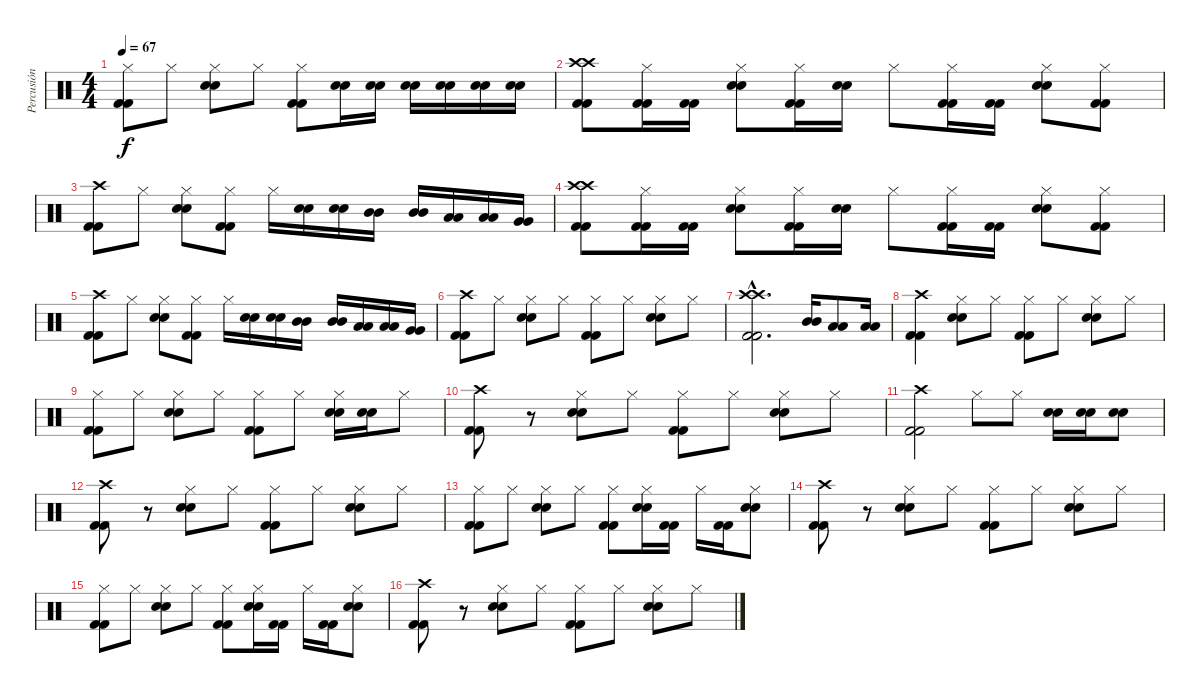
\track ("Percusión" "Percusión") {instrument percussion}
\staff {score}
\articulation defaults
\ts (4 4)
\tempo 67
\clef neutral
\ks c
("Hi-Hat (closed)" "Kick (hit) 2" "Kick (hit) 2").8{dy f} "Hi-Hat (closed)".8 ("Hi-Hat (closed)" "Electric Snare (hit)" "Electric Snare (hit)").8 "Hi-Hat (closed)".8 ("Hi-Hat (closed)" "Kick (hit) 2" "Kick (hit) 2").8 ("Electric Snare (hit)" "Electric Snare (hit)").16 ("Electric Snare (hit)" "Electric Snare (hit)").16 ("Electric Snare (hit)" "Electric Snare (hit)").16 ("Electric Snare (hit)" "Electric Snare (hit)").16 ("Electric Snare (hit)" "Electric Snare (hit)").16 ("Electric Snare (hit)" "Electric Snare (hit)").16 |
("Crash high (hit)" "Crash high (hit)" "Kick (hit) 2" "Kick (hit) 2").8 ("Hi-Hat (closed)" "Kick (hit) 2" "Kick (hit) 2").16 ("Kick (hit) 2" "Kick (hit) 2").16 ("Hi-Hat (closed)" "Electric Snare (hit)" "Electric Snare (hit)").8 ("Hi-Hat (closed)" "Kick (hit) 2" "Kick (hit) 2").16 ("Electric Snare (hit)" "Electric Snare (hit)").16 "Hi-Hat (closed)".8 ("Hi-Hat (closed)" "Kick (hit) 2" "Kick (hit) 2").16 ("Kick (hit) 2" "Kick (hit) 2").16 ("Hi-Hat (closed)" "Electric Snare (hit)" "Electric Snare (hit)").8 ("Hi-Hat (closed)" "Kick (hit) 2" "Kick (hit) 2").8 |
("Crash high (hit)" "Kick (hit) 2" "Kick (hit) 2").8 "Hi-Hat (closed)".8 ("Hi-Hat (closed)" "Electric Snare (hit)" "Electric Snare (hit)").8 ("Hi-Hat (closed)" "Kick (hit) 2" "Kick (hit) 2").8 "Hi-Hat (closed)".16 ("Electric Snare (hit)" "Electric Snare (hit)").16 ("Electric Snare (hit)" "Electric Snare (hit)").16 ("Mid Tom (hit)" "Mid Tom (hit)").16 ("Mid Tom (hit)" "Mid Tom (hit)").16 ("Low Tom (hit)" "Low Tom (hit)").16 ("Low Tom (hit)" "Low Tom (hit)").16 ("Very Low Tom (hit)" "Very Low Tom (hit)").16 |
("Crash high (hit)" "Crash high (hit)" "Kick (hit) 2" "Kick (hit) 2").8 ("Hi-Hat (closed)" "Kick (hit) 2" "Kick (hit) 2").16 ("Kick (hit) 2" "Kick (hit) 2").16 ("Hi-Hat (closed)" "Electric Snare (hit)" "Electric Snare (hit)").8 ("Hi-Hat (closed)" "Kick (hit) 2" "Kick (hit) 2").16 ("Electric Snare (hit)" "Electric Snare (hit)").16 "Hi-Hat (closed)".8 ("Hi-Hat (closed)" "Kick (hit) 2" "Kick (hit) 2").16 ("Kick (hit) 2" "Kick (hit) 2").16 ("Hi-Hat (closed)" "Electric Snare (hit)" "Electric Snare (hit)").8 ("Hi-Hat (closed)" "Kick (hit) 2" "Kick (hit) 2").8 |
("Crash high (hit)" "Kick (hit) 2" "Kick (hit) 2").8 "Hi-Hat (closed)".8 ("Hi-Hat (closed)" "Electric Snare (hit)" "Electric Snare (hit)").8 ("Hi-Hat (closed)" "Kick (hit) 2" "Kick (hit) 2").8 "Hi-Hat (closed)".16 ("Electric Snare (hit)" "Electric Snare (hit)").16 ("Electric Snare (hit)" "Electric Snare (hit)").16 ("Mid Tom (hit)" "Mid Tom (hit)").16 ("Mid Tom (hit)" "Mid Tom (hit)").16 ("Low Tom (hit)" "Low Tom (hit)").16 ("Low Tom (hit)" "Low Tom (hit)").16 ("Very Low Tom (hit)" "Very Low Tom (hit)").16 |
("Crash high (hit)" "Kick (hit) 2" "Kick (hit) 2").8 "Hi-Hat (closed)".8 ("Hi-Hat (closed)" "Electric Snare (hit)" "Electric Snare (hit)").8 "Hi-Hat (closed)".8 ("Hi-Hat (closed)" "Kick (hit) 2" "Kick (hit) 2").8 "Hi-Hat (closed)".8 ("Hi-Hat (closed)" "Electric Snare (hit)" "Electric Snare (hit)").8 "Hi-Hat (closed)".8 |
("Crash high (hit)"{hac} "Crash high (hit)"{hac} "Kick (hit) 2"{hac} "Kick (hit) 2"{hac}).2{d} ("Mid Tom (hit)" "Mid Tom (hit)").16 ("Low Tom (hit)" "Low Tom (hit)").8 ("Low Tom (hit)" "Low Tom (hit)").16 |
("Crash high (hit)" "Kick (hit) 2" "Kick (hit) 2").4 ("Hi-Hat (closed)" "Electric Snare (hit)" "Electric Snare (hit)").8 "Hi-Hat (closed)".8 ("Hi-Hat (closed)" "Kick (hit) 2" "Kick (hit) 2").8 "Hi-Hat (closed)".8 ("Hi-Hat (closed)" "Electric Snare (hit)" "Electric Snare (hit)").8 "Hi-Hat (closed)".8 |
("Hi-Hat (closed)" "Kick (hit) 2" "Kick (hit) 2").8 "Hi-Hat (closed)".8 ("Hi-Hat (closed)" "Electric Snare (hit)" "Electric Snare (hit)").8 "Hi-Hat (closed)".8 ("Hi-Hat (closed)" "Kick (hit) 2" "Kick (hit) 2").8 "Hi-Hat (closed)".8 ("Hi-Hat (closed)" "Electric Snare (hit)" "Electric Snare (hit)").16 ("Electric Snare (hit)" "Electric Snare (hit)").16 "Hi-Hat (closed)".8 |
("Crash high (hit)" "Kick (hit) 2" "Kick (hit) 2").8 r.8 ("Hi-Hat (closed)" "Electric Snare (hit)" "Electric Snare (hit)").8 "Hi-Hat (closed)".8 ("Hi-Hat (closed)" "Kick (hit) 2" "Kick (hit) 2").8 "Hi-Hat (closed)".8 ("Hi-Hat (closed)" "Electric Snare (hit)" "Electric Snare (hit)").8 "Hi-Hat (closed)".8 |
("Crash high (hit)" "Kick (hit) 2" "Kick (hit) 2").2 "Hi-Hat (closed)".8 "Hi-Hat (closed)".8 ("Electric Snare (hit)" "Electric Snare (hit)").16 ("Electric Snare (hit)" "Electric Snare (hit)").16 ("Electric Snare (hit)" "Electric Snare (hit)").8 |
("Crash high (hit)" "Kick (hit) 2" "Kick (hit) 2").8 r.8 ("Hi-Hat (closed)" "Electric Snare (hit)" "Electric Snare (hit)").8 "Hi-Hat (closed)".8 ("Hi-Hat (closed)" "Kick (hit) 2" "Kick (hit) 2").8 "Hi-Hat (closed)".8 ("Hi-Hat (closed)" "Electric Snare (hit)" "Electric Snare (hit)").8 "Hi-Hat (closed)".8 |
("Hi-Hat (closed)" "Kick (hit) 2" "Kick (hit) 2").8 "Hi-Hat (closed)".8 ("Hi-Hat (closed)" "Electric Snare (hit)" "Electric Snare (hit)").8 "Hi-Hat (closed)".8 ("Hi-Hat (closed)" "Kick (hit) 2" "Kick (hit) 2").8 ("Hi-Hat (closed)" "Electric Snare (hit)" "Electric Snare (hit)").16 ("Kick (hit) 2" "Kick (hit) 2").16 "Hi-Hat (closed)".16 ("Kick (hit) 2" "Kick (hit) 2").16 ("Hi-Hat (closed)" "Electric Snare (hit)" "Electric Snare (hit)").8 |
("Crash high (hit)" "Kick (hit) 2" "Kick (hit) 2").8 r.8 ("Hi-Hat (closed)" "Electric Snare (hit)" "Electric Snare (hit)").8 "Hi-Hat (closed)".8 ("Hi-Hat (closed)" "Kick (hit) 2" "Kick (hit) 2").8 "Hi-Hat (closed)".8 ("Hi-Hat (closed)" "Electric Snare (hit)" "Electric Snare (hit)").8 "Hi-Hat (closed)".8 |
("Hi-Hat (closed)" "Kick (hit) 2" "Kick (hit) 2").8 "Hi-Hat (closed)".8 ("Hi-Hat (closed)" "Electric Snare (hit)" "Electric Snare (hit)").8 "Hi-Hat (closed)".8 ("Hi-Hat (closed)" "Kick (hit) 2" "Kick (hit) 2").8 ("Hi-Hat (closed)" "Electric Snare (hit)" "Electric Snare (hit)").16 ("Kick (hit) 2" "Kick (hit) 2").16 "Hi-Hat (closed)".16 ("Kick (hit) 2" "Kick (hit) 2").16 ("Hi-Hat (closed)" "Electric Snare (hit)" "Electric Snare (hit)").8 |
("Crash high (hit)" "Kick (hit) 2" "Kick (hit) 2").8 r.8 ("Hi-Hat (closed)" "Electric Snare (hit)" "Electric Snare (hit)").8 "Hi-Hat (closed)".8 ("Hi-Hat (closed)" "Kick (hit) 2" "Kick (hit) 2").8 "Hi-Hat (closed)".8 ("Hi-Hat (closed)" "Electric Snare (hit)" "Electric Snare (hit)").8 "Hi-Hat (closed)".8
